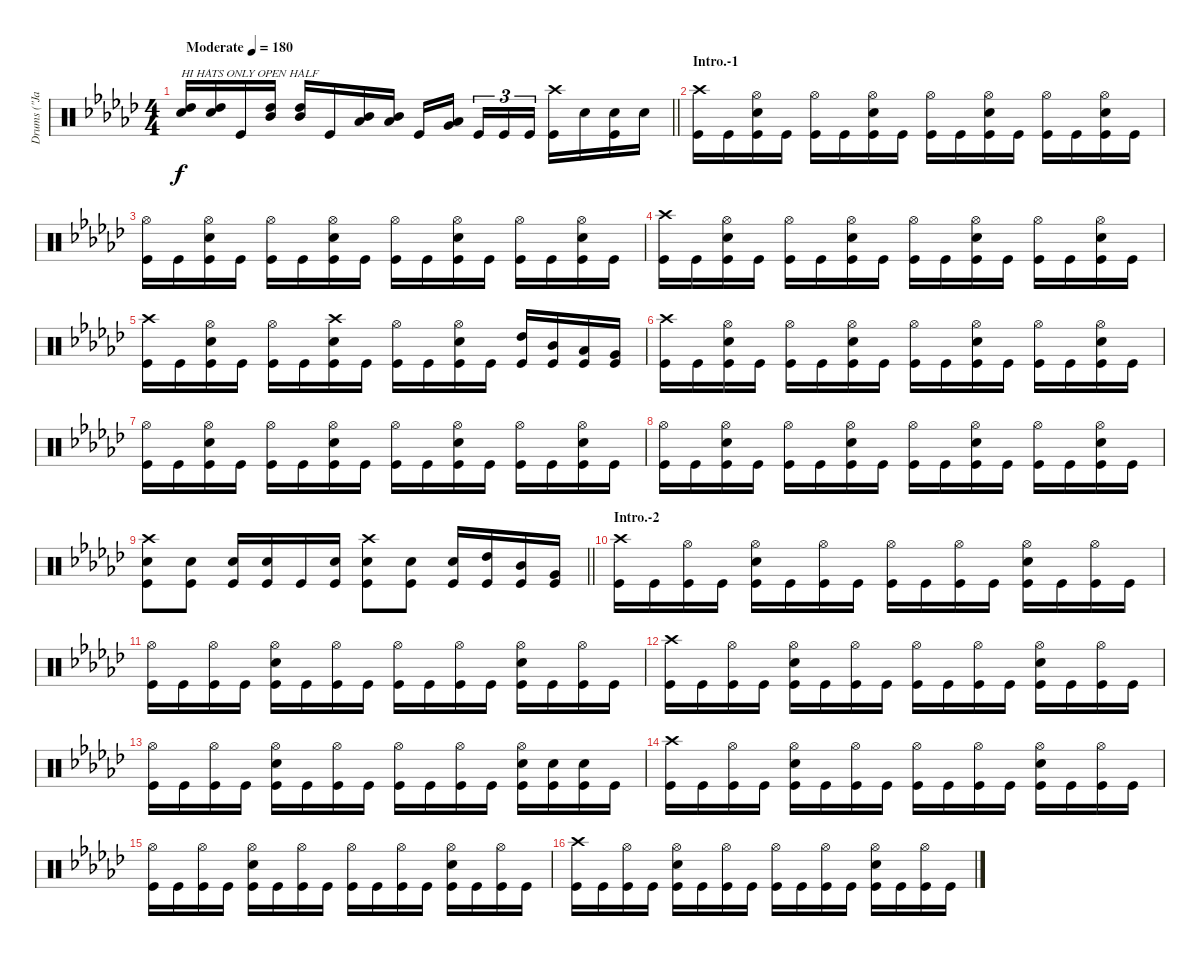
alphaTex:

\track ("Drums (\"Jane\")" "Drums (\"Ja") {instrument percussion}
\staff {score}
\articulation defaults
\ts (4 4)
\tempo (180 "Moderate")
\clef neutral
\barLineRight lightlight
\ks gb
("Snare (hit) 2" "High Tom (hit)").16{txt "HI HATS ONLY OPEN HALF" dy f} ("Snare (hit) 2" "High Tom (hit)").16 "Kick (hit)".16 ("Mid Tom (hit)" "High Tom (hit)").16 ("Mid Tom (hit)" "High Tom (hit)").16 "Kick (hit)".16 ("Mid Tom (hit)" "Low Tom (hit)").16 ("Mid Tom (hit)" "Low Tom (hit)").16 "Kick (hit)".16 ("Very Low Tom (hit)" "Low Tom (hit)").16{beam splitsecondary} "Kick (hit)".16{tu (3 2)} "Kick (hit)".16{tu (3 2)} "Kick (hit)".16{tu (3 2)} ("Crash high (hit)" "Kick (hit)").16 "Snare (hit) 2".16 ("Snare (hit) 2" "Kick (hit)").16 "Snare (hit) 2".16 |
\section ("" "Intro.-1")
("Crash high (hit)" "Kick (hit)").16 "Kick (hit)".16 ("Hi-Hat (open)" "Snare (hit) 2" "Kick (hit)").16 "Kick (hit)".16 ("Hi-Hat (open)" "Kick (hit)").16 "Kick (hit)".16 ("Hi-Hat (open)" "Snare (hit) 2" "Kick (hit)").16 "Kick (hit)".16 ("Hi-Hat (open)" "Kick (hit)").16 "Kick (hit)".16 ("Hi-Hat (open)" "Snare (hit) 2" "Kick (hit)").16 "Kick (hit)".16 ("Hi-Hat (open)" "Kick (hit)").16 "Kick (hit)".16 ("Hi-Hat (open)" "Snare (hit) 2" "Kick (hit)").16 "Kick (hit)".16 |
("Hi-Hat (open)" "Kick (hit)").16 "Kick (hit)".16 ("Hi-Hat (open)" "Snare (hit) 2" "Kick (hit)").16 "Kick (hit)".16 ("Hi-Hat (open)" "Kick (hit)").16 "Kick (hit)".16 ("Hi-Hat (open)" "Snare (hit) 2" "Kick (hit)").16 "Kick (hit)".16 ("Hi-Hat (open)" "Kick (hit)").16 "Kick (hit)".16 ("Hi-Hat (open)" "Snare (hit) 2" "Kick (hit)").16 "Kick (hit)".16 ("Hi-Hat (open)" "Kick (hit)").16 "Kick (hit)".16 ("Hi-Hat (open)" "Snare (hit) 2" "Kick (hit)").16 "Kick (hit)".16 |
("Crash high (hit)" "Kick (hit)").16 "Kick (hit)".16 ("Hi-Hat (open)" "Snare (hit) 2" "Kick (hit)").16 "Kick (hit)".16 ("Hi-Hat (open)" "Kick (hit)").16 "Kick (hit)".16 ("Hi-Hat (open)" "Snare (hit) 2" "Kick (hit)").16 "Kick (hit)".16 ("Hi-Hat (open)" "Kick (hit)").16 "Kick (hit)".16 ("Hi-Hat (open)" "Snare (hit) 2" "Kick (hit)").16 "Kick (hit)".16 ("Hi-Hat (open)" "Kick (hit)").16 "Kick (hit)".16 ("Hi-Hat (open)" "Snare (hit) 2" "Kick (hit)").16 "Kick (hit)".16 |
("Crash high (hit)" "Kick (hit)").16 "Kick (hit)".16 ("Hi-Hat (open)" "Snare (hit) 2" "Kick (hit)").16 "Kick (hit)".16 ("Hi-Hat (open)" "Kick (hit)").16 "Kick (hit)".16 ("Crash high (hit)" "Snare (hit) 2" "Kick (hit)").16 "Kick (hit)".16 ("Hi-Hat (open)" "Kick (hit)").16 "Kick (hit)".16 ("Hi-Hat (open)" "Snare (hit) 2" "Kick (hit)").16 "Kick (hit)".16 ("High Tom (hit)" "Kick (hit)").16 ("Mid Tom (hit)" "Kick (hit)").16 ("Low Tom (hit)" "Kick (hit)").16 ("Very Low Tom (hit)" "Kick (hit)").16 |
("Crash high (hit)" "Kick (hit)").16 "Kick (hit)".16 ("Hi-Hat (open)" "Snare (hit) 2" "Kick (hit)").16 "Kick (hit)".16 ("Hi-Hat (open)" "Kick (hit)").16 "Kick (hit)".16 ("Hi-Hat (open)" "Snare (hit) 2" "Kick (hit)").16 "Kick (hit)".16 ("Hi-Hat (open)" "Kick (hit)").16 "Kick (hit)".16 ("Hi-Hat (open)" "Snare (hit) 2" "Kick (hit)").16 "Kick (hit)".16 ("Hi-Hat (open)" "Kick (hit)").16 "Kick (hit)".16 ("Hi-Hat (open)" "Snare (hit) 2" "Kick (hit)").16 "Kick (hit)".16 |
("Hi-Hat (open)" "Kick (hit)").16 "Kick (hit)".16 ("Hi-Hat (open)" "Snare (hit) 2" "Kick (hit)").16 "Kick (hit)".16 ("Hi-Hat (open)" "Kick (hit)").16 "Kick (hit)".16 ("Hi-Hat (open)" "Snare (hit) 2" "Kick (hit)").16 "Kick (hit)".16 ("Hi-Hat (open)" "Kick (hit)").16 "Kick (hit)".16 ("Hi-Hat (open)" "Snare (hit) 2" "Kick (hit)").16 "Kick (hit)".16 ("Hi-Hat (open)" "Kick (hit)").16 "Kick (hit)".16 ("Hi-Hat (open)" "Snare (hit) 2" "Kick (hit)").16 "Kick (hit)".16 |
("Hi-Hat (open)" "Kick (hit)").16 "Kick (hit)".16 ("Hi-Hat (open)" "Snare (hit) 2" "Kick (hit)").16 "Kick (hit)".16 ("Hi-Hat (open)" "Kick (hit)").16 "Kick (hit)".16 ("Hi-Hat (open)" "Snare (hit) 2" "Kick (hit)").16 "Kick (hit)".16 ("Hi-Hat (open)" "Kick (hit)").16 "Kick (hit)".16 ("Hi-Hat (open)" "Snare (hit) 2" "Kick (hit)").16 "Kick (hit)".16 ("Hi-Hat (open)" "Kick (hit)").16 "Kick (hit)".16 ("Hi-Hat (open)" "Snare (hit) 2" "Kick (hit)").16 "Kick (hit)".16 |
\barLineRight lightlight
("Crash high (hit)" "Snare (hit) 2" "Kick (hit)").8 ("Snare (hit) 2" "Kick (hit)").8 ("Snare (hit) 2" "Kick (hit)").16 ("Snare (hit) 2" "Kick (hit)").16 "Kick (hit)".16 ("Snare (hit) 2" "Kick (hit)").16 ("Crash high (hit)" "Snare (hit) 2" "Kick (hit)").8 ("Snare (hit) 2" "Kick (hit)").8 ("Snare (hit) 2" "Kick (hit)").16 ("High Tom (hit)" "Kick (hit)").16 ("Mid Tom (hit)" "Kick (hit)").16 ("Very Low Tom (hit)" "Kick (hit)").16 |
\section ("" "Intro.-2")
("Crash high (hit)" "Kick (hit)").16 "Kick (hit)".16 ("Hi-Hat (open)" "Kick (hit)").16 "Kick (hit)".16 ("Hi-Hat (open)" "Snare (hit) 2" "Kick (hit)").16 "Kick (hit)".16 ("Hi-Hat (open)" "Kick (hit)").16 "Kick (hit)".16 ("Hi-Hat (open)" "Kick (hit)").16 "Kick (hit)".16 ("Hi-Hat (open)" "Kick (hit)").16 "Kick (hit)".16 ("Hi-Hat (open)" "Snare (hit) 2" "Kick (hit)").16 "Kick (hit)".16 ("Hi-Hat (open)" "Kick (hit)").16 "Kick (hit)".16 |
("Hi-Hat (open)" "Kick (hit)").16 "Kick (hit)".16 ("Hi-Hat (open)" "Kick (hit)").16 "Kick (hit)".16 ("Hi-Hat (open)" "Snare (hit) 2" "Kick (hit)").16 "Kick (hit)".16 ("Hi-Hat (open)" "Kick (hit)").16 "Kick (hit)".16 ("Hi-Hat (open)" "Kick (hit)").16 "Kick (hit)".16 ("Hi-Hat (open)" "Kick (hit)").16 "Kick (hit)".16 ("Hi-Hat (open)" "Snare (hit) 2" "Kick (hit)").16 "Kick (hit)".16 ("Hi-Hat (open)" "Kick (hit)").16 "Kick (hit)".16 |
("Crash high (hit)" "Kick (hit)").16 "Kick (hit)".16 ("Hi-Hat (open)" "Kick (hit)").16 "Kick (hit)".16 ("Hi-Hat (open)" "Snare (hit) 2" "Kick (hit)").16 "Kick (hit)".16 ("Hi-Hat (open)" "Kick (hit)").16 "Kick (hit)".16 ("Hi-Hat (open)" "Kick (hit)").16 "Kick (hit)".16 ("Hi-Hat (open)" "Kick (hit)").16 "Kick (hit)".16 ("Hi-Hat (open)" "Snare (hit) 2" "Kick (hit)").16 "Kick (hit)".16 ("Hi-Hat (open)" "Kick (hit)").16 "Kick (hit)".16 |
("Hi-Hat (open)" "Kick (hit)").16 "Kick (hit)".16 ("Hi-Hat (open)" "Kick (hit)").16 "Kick (hit)".16 ("Hi-Hat (open)" "Snare (hit) 2" "Kick (hit)").16 "Kick (hit)".16 ("Hi-Hat (open)" "Kick (hit)").16 "Kick (hit)".16 ("Hi-Hat (open)" "Kick (hit)").16 "Kick (hit)".16 ("Hi-Hat (open)" "Kick (hit)").16 "Kick (hit)".16 ("Hi-Hat (open)" "Snare (hit) 2" "Kick (hit)").16 ("Snare (hit) 2" "Kick (hit)").16 ("Snare (hit) 2" "Kick (hit)").16 "Kick (hit)".16 |
("Crash high (hit)" "Kick (hit)").16 "Kick (hit)".16 ("Hi-Hat (open)" "Kick (hit)").16 "Kick (hit)".16 ("Hi-Hat (open)" "Snare (hit) 2" "Kick (hit)").16 "Kick (hit)".16 ("Hi-Hat (open)" "Kick (hit)").16 "Kick (hit)".16 ("Hi-Hat (open)" "Kick (hit)").16 "Kick (hit)".16 ("Hi-Hat (open)" "Kick (hit)").16 "Kick (hit)".16 ("Hi-Hat (open)" "Snare (hit) 2" "Kick (hit)").16 "Kick (hit)".16 ("Hi-Hat (open)" "Kick (hit)").16 "Kick (hit)".16 |
("Hi-Hat (open)" "Kick (hit)").16 "Kick (hit)".16 ("Hi-Hat (open)" "Kick (hit)").16 "Kick (hit)".16 ("Hi-Hat (open)" "Snare (hit) 2" "Kick (hit)").16 "Kick (hit)".16 ("Hi-Hat (open)" "Kick (hit)").16 "Kick (hit)".16 ("Hi-Hat (open)" "Kick (hit)").16 "Kick (hit)".16 ("Hi-Hat (open)" "Kick (hit)").16 "Kick (hit)".16 ("Hi-Hat (open)" "Snare (hit) 2" "Kick (hit)").16 "Kick (hit)".16 ("Hi-Hat (open)" "Kick (hit)").16 "Kick (hit)".16 |
("Crash high (hit)" "Kick (hit)").16 "Kick (hit)".16 ("Hi-Hat (open)" "Kick (hit)").16 "Kick (hit)".16 ("Hi-Hat (open)" "Snare (hit) 2" "Kick (hit)").16 "Kick (hit)".16 ("Hi-Hat (open)" "Kick (hit)").16 "Kick (hit)".16 ("Hi-Hat (open)" "Kick (hit)").16 "Kick (hit)".16 ("Hi-Hat (open)" "Kick (hit)").16 "Kick (hit)".16 ("Hi-Hat (open)" "Snare (hit) 2" "Kick (hit)").16 "Kick (hit)".16 ("Hi-Hat (open)" "Kick (hit)").16 "Kick (hit)".16
